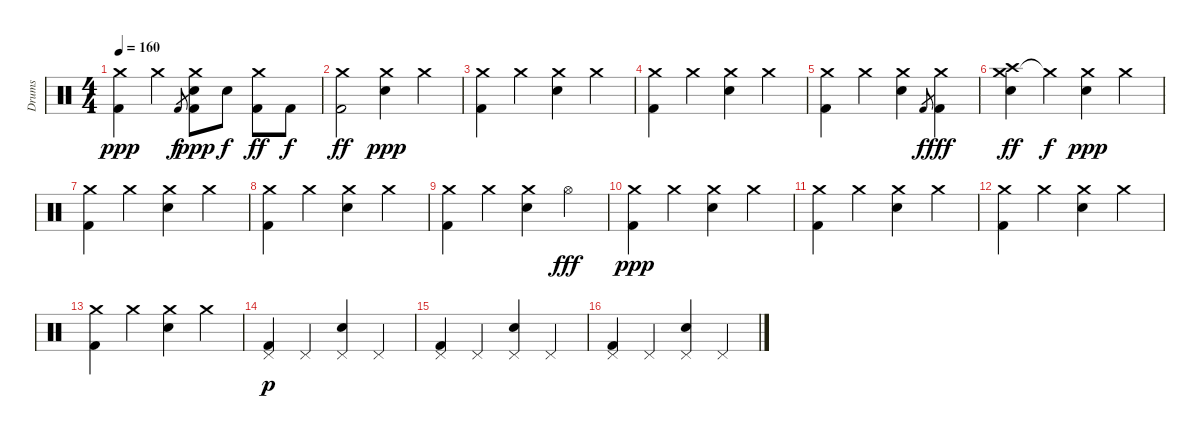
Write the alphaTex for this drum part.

\track ("Drums" "Drums") {instrument percussion}
\staff {score}
\articulation defaults
\ts (4 4)
\tempo 160
\clef neutral
\ks c
("Crash medium (hit)" "Kick (hit) 2").4{dy ppp} "Crash medium (hit)".4 "Kick (hit) 2".8{gr dy f} ("Crash medium (hit)" "Snare (hit) 2" "Kick (hit) 2").8{dy ppp} "Snare (hit) 2".8{dy f} ("Crash medium (hit)" "Kick (hit) 2").8{dy ff} "Kick (hit) 2".8{dy f} |
("Crash medium (hit)" "Kick (hit) 2").2{dy ff} ("Crash medium (hit)" "Snare (hit) 2").4{dy ppp} "Crash medium (hit)".4 |
("Crash medium (hit)" "Kick (hit) 2").4 "Crash medium (hit)".4 ("Crash medium (hit)" "Snare (hit) 2").4 "Crash medium (hit)".4 |
("Crash medium (hit)" "Kick (hit) 2").4 "Crash medium (hit)".4 ("Crash medium (hit)" "Snare (hit) 2").4 "Crash medium (hit)".4 |
("Crash medium (hit)" "Kick (hit) 2").4 "Crash medium (hit)".4 ("Crash medium (hit)" "Snare (hit) 2").4 "Kick (hit) 2".8{gr dy f} ("Crash medium (hit)" "Kick (hit) 2").4{dy fff} |
("Crash medium (hit)" "Crash high (hit)" "Snare (hit) 2").4{dy ff} "Crash medium (hit)"{t}.4{dy f} ("Crash medium (hit)" "Snare (hit) 2").4{dy ppp} "Crash medium (hit)".4 |
("Crash medium (hit)" "Kick (hit) 2").4 "Crash medium (hit)".4 ("Crash medium (hit)" "Snare (hit) 2").4 "Crash medium (hit)".4 |
("Crash medium (hit)" "Kick (hit) 2").4 "Crash medium (hit)".4 ("Crash medium (hit)" "Snare (hit) 2").4 "Crash medium (hit)".4 |
("Crash medium (hit)" "Kick (hit) 2").4 "Crash medium (hit)".4 ("Crash medium (hit)" "Snare (hit) 2").4 "Hi-Hat (open)".4{dy fff} |
("Crash medium (hit)" "Kick (hit) 2").4{dy ppp} "Crash medium (hit)".4 ("Crash medium (hit)" "Snare (hit) 2").4 "Crash medium (hit)".4 |
("Crash medium (hit)" "Kick (hit) 2").4 "Crash medium (hit)".4 ("Crash medium (hit)" "Snare (hit) 2").4 "Crash medium (hit)".4 |
("Crash medium (hit)" "Kick (hit) 2").4 "Crash medium (hit)".4 ("Crash medium (hit)" "Snare (hit) 2").4 "Crash medium (hit)".4 |
("Crash medium (hit)" "Kick (hit) 2").4 "Crash medium (hit)".4 ("Crash medium (hit)" "Snare (hit) 2").4 "Crash medium (hit)".4 |
("Pedal Hi-Hat (hit)" "Kick (hit) 2").4{dy p} "Pedal Hi-Hat (hit)".4 ("Pedal Hi-Hat (hit)" "Snare (hit) 2").4 "Pedal Hi-Hat (hit)".4 |
("Pedal Hi-Hat (hit)" "Kick (hit) 2").4 "Pedal Hi-Hat (hit)".4 ("Pedal Hi-Hat (hit)" "Snare (hit) 2").4 "Pedal Hi-Hat (hit)".4 |
("Pedal Hi-Hat (hit)" "Kick (hit) 2").4 "Pedal Hi-Hat (hit)".4 ("Pedal Hi-Hat (hit)" "Snare (hit) 2").4 "Pedal Hi-Hat (hit)".4
